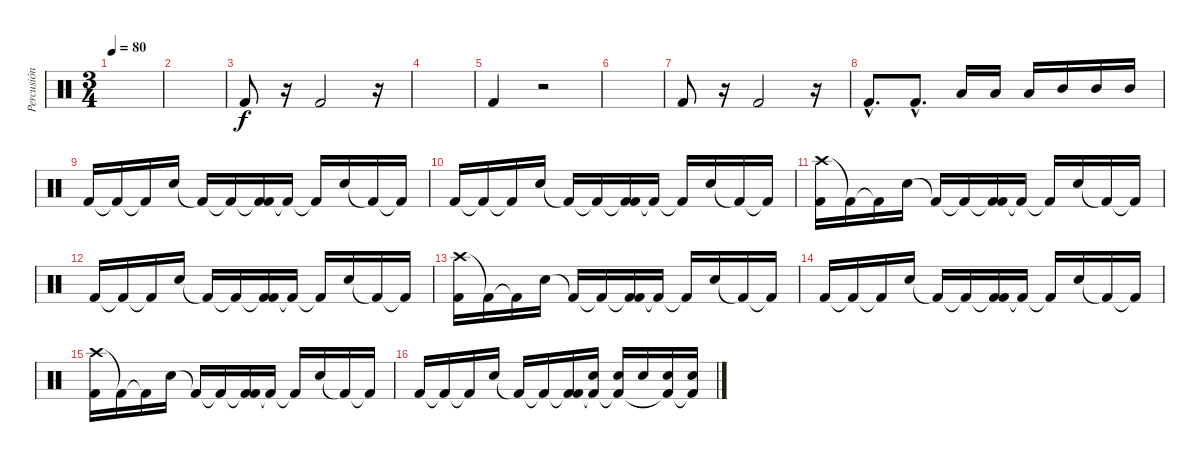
\track ("Percusión" "Percusión") {instrument percussion}
\staff {score}
\articulation defaults
\ts (3 4)
\tempo 80
\clef neutral
\ks c
|
|
"Kick (hit) 2".8 r.16 "Kick (hit) 2".2 r.16 |
|
"Kick (hit) 2".4 r.2 |
|
"Kick (hit) 2".8 r.16 "Kick (hit) 2".2 r.16 |
"Kick (hit) 2"{hac}.8{d} "Kick (hit) 2"{hac}.8{d} "Low Tom (hit)".16 "Low Tom (hit)".16 "Low Tom (hit)".16 "Mid Tom (hit)".16 "Mid Tom (hit)".16 "Mid Tom (hit)".16 |
"Kick (hit) 2".16 "Kick (hit) 2"{t}.16 "Kick (hit) 2"{t}.16 "Electric Snare (hit)".16 "Kick (hit) 2"{t}.16 "Kick (hit) 2"{t}.16 ("Kick (hit) 2"{t} "Kick (hit) 2").16 "Kick (hit) 2"{t}.16 "Kick (hit) 2"{t}.16 "Electric Snare (hit)".16 "Kick (hit) 2"{t}.16 "Kick (hit) 2"{t}.16 |
"Kick (hit) 2".16 "Kick (hit) 2"{t}.16 "Kick (hit) 2"{t}.16 "Electric Snare (hit)".16 "Kick (hit) 2"{t}.16 "Kick (hit) 2"{t}.16 ("Kick (hit) 2"{t} "Kick (hit) 2").16 "Kick (hit) 2"{t}.16 "Kick (hit) 2"{t}.16 "Electric Snare (hit)".16 "Kick (hit) 2"{t}.16 "Kick (hit) 2"{t}.16 |
("Crash high (hit)" "Kick (hit) 2").16 "Kick (hit) 2"{t}.16 "Kick (hit) 2"{t}.16 "Electric Snare (hit)".16 "Kick (hit) 2"{t}.16 "Kick (hit) 2"{t}.16 ("Kick (hit) 2"{t} "Kick (hit) 2").16 "Kick (hit) 2"{t}.16 "Kick (hit) 2"{t}.16 "Electric Snare (hit)".16 "Kick (hit) 2"{t}.16 "Kick (hit) 2"{t}.16 |
"Kick (hit) 2".16 "Kick (hit) 2"{t}.16 "Kick (hit) 2"{t}.16 "Electric Snare (hit)".16 "Kick (hit) 2"{t}.16 "Kick (hit) 2"{t}.16 ("Kick (hit) 2"{t} "Kick (hit) 2").16 "Kick (hit) 2"{t}.16 "Kick (hit) 2"{t}.16 "Electric Snare (hit)".16 "Kick (hit) 2"{t}.16 "Kick (hit) 2"{t}.16 |
("Crash high (hit)" "Kick (hit) 2").16 "Kick (hit) 2"{t}.16 "Kick (hit) 2"{t}.16 "Electric Snare (hit)".16 "Kick (hit) 2"{t}.16 "Kick (hit) 2"{t}.16 ("Kick (hit) 2"{t} "Kick (hit) 2").16 "Kick (hit) 2"{t}.16 "Kick (hit) 2"{t}.16 "Electric Snare (hit)".16 "Kick (hit) 2"{t}.16 "Kick (hit) 2"{t}.16 |
"Kick (hit) 2".16 "Kick (hit) 2"{t}.16 "Kick (hit) 2"{t}.16 "Electric Snare (hit)".16 "Kick (hit) 2"{t}.16 "Kick (hit) 2"{t}.16 ("Kick (hit) 2"{t} "Kick (hit) 2").16 "Kick (hit) 2"{t}.16 "Kick (hit) 2"{t}.16 "Electric Snare (hit)".16 "Kick (hit) 2"{t}.16 "Kick (hit) 2"{t}.16 |
("Crash high (hit)" "Kick (hit) 2").16 "Kick (hit) 2"{t}.16 "Kick (hit) 2"{t}.16 "Electric Snare (hit)".16 "Kick (hit) 2"{t}.16 "Kick (hit) 2"{t}.16 ("Kick (hit) 2"{t} "Kick (hit) 2").16 "Kick (hit) 2"{t}.16 "Kick (hit) 2"{t}.16 "Electric Snare (hit)".16 "Kick (hit) 2"{t}.16 "Kick (hit) 2"{t}.16 |
"Kick (hit) 2".16 "Kick (hit) 2"{t}.16 "Kick (hit) 2"{t}.16 "Electric Snare (hit)".16 "Kick (hit) 2"{t}.16 "Kick (hit) 2"{t}.16 ("Kick (hit) 2"{t} "Kick (hit) 2").16 ("Electric Snare (hit)" "Kick (hit) 2"{t}).16 ("Electric Snare (hit)" "Kick (hit) 2"{t}).16 "Electric Snare (hit)".16 ("Electric Snare (hit)" "Kick (hit) 2"{t}).16 ("Electric Snare (hit)" "Kick (hit) 2"{t}).16
